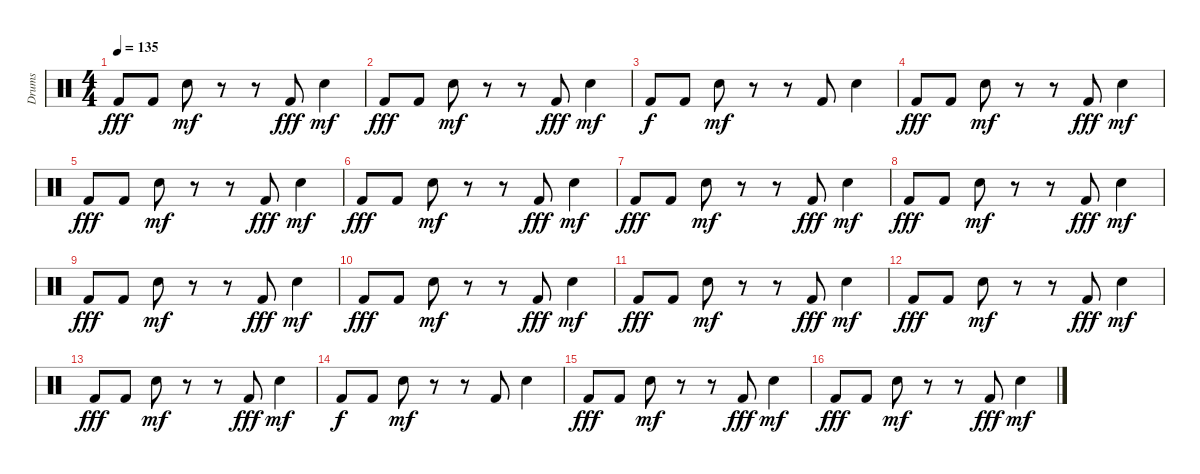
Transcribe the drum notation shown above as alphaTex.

\track ("Drums" "Drums") {instrument percussion}
\staff {score}
\articulation defaults
\ts (4 4)
\tempo 135
\clef neutral
\ks c "Kick (hit) 2".8{dy fff} "Kick (hit) 2".8 "Snare (hit) 2".8{dy mf}
r.8 r.8 "Kick (hit) 2".8{dy fff} "Snare (hit) 2".4{dy mf} |
"Kick (hit) 2".8{dy fff} "Kick (hit) 2".8 "Snare (hit) 2".8{dy mf} r.8 r.8 "Kick (hit) 2".8{dy fff} "Snare (hit) 2".4{dy mf} |
"Kick (hit) 2".8{dy f} "Kick (hit) 2".8 "Snare (hit) 2".8{dy mf} r.8 r.8 "Kick (hit) 2".8 "Snare (hit) 2".4 |
"Kick (hit) 2".8{dy fff} "Kick (hit) 2".8 "Snare (hit) 2".8{dy mf} r.8 r.8 "Kick (hit) 2".8{dy fff} "Snare (hit) 2".4{dy mf} |
"Kick (hit) 2".8{dy fff} "Kick (hit) 2".8 "Snare (hit) 2".8{dy mf} r.8 r.8 "Kick (hit) 2".8{dy fff} "Snare (hit) 2".4{dy mf} |
"Kick (hit) 2".8{dy fff} "Kick (hit) 2".8 "Snare (hit) 2".8{dy mf} r.8 r.8 "Kick (hit) 2".8{dy fff} "Snare (hit) 2".4{dy mf} |
"Kick (hit) 2".8{dy fff} "Kick (hit) 2".8 "Snare (hit) 2".8{dy mf} r.8 r.8 "Kick (hit) 2".8{dy fff} "Snare (hit) 2".4{dy mf} |
"Kick (hit) 2".8{dy fff} "Kick (hit) 2".8 "Snare (hit) 2".8{dy mf} r.8 r.8 "Kick (hit) 2".8{dy fff} "Snare (hit) 2".4{dy mf} |
"Kick (hit) 2".8{dy fff} "Kick (hit) 2".8 "Snare (hit) 2".8{dy mf} r.8 r.8 "Kick (hit) 2".8{dy fff} "Snare (hit) 2".4{dy mf} |
"Kick (hit) 2".8{dy fff} "Kick (hit) 2".8 "Snare (hit) 2".8{dy mf} r.8 r.8 "Kick (hit) 2".8{dy fff} "Snare (hit) 2".4{dy mf} |
"Kick (hit) 2".8{dy fff} "Kick (hit) 2".8 "Snare (hit) 2".8{dy mf} r.8 r.8 "Kick (hit) 2".8{dy fff} "Snare (hit) 2".4{dy mf} |
"Kick (hit) 2".8{dy fff} "Kick (hit) 2".8 "Snare (hit) 2".8{dy mf} r.8 r.8 "Kick (hit) 2".8{dy fff} "Snare (hit) 2".4{dy mf} |
"Kick (hit) 2".8{dy fff} "Kick (hit) 2".8 "Snare (hit) 2".8{dy mf} r.8 r.8 "Kick (hit) 2".8{dy fff} "Snare (hit) 2".4{dy mf} |
"Kick (hit) 2".8{dy f} "Kick (hit) 2".8 "Snare (hit) 2".8{dy mf} r.8 r.8 "Kick (hit) 2".8 "Snare (hit) 2".4 |
"Kick (hit) 2".8{dy fff} "Kick (hit) 2".8 "Snare (hit) 2".8{dy mf} r.8 r.8 "Kick (hit) 2".8{dy fff} "Snare (hit) 2".4{dy mf} |
"Kick (hit) 2".8{dy fff} "Kick (hit) 2".8 "Snare (hit) 2".8{dy mf} r.8 r.8 "Kick (hit) 2".8{dy fff} "Snare (hit) 2".4{dy mf}
